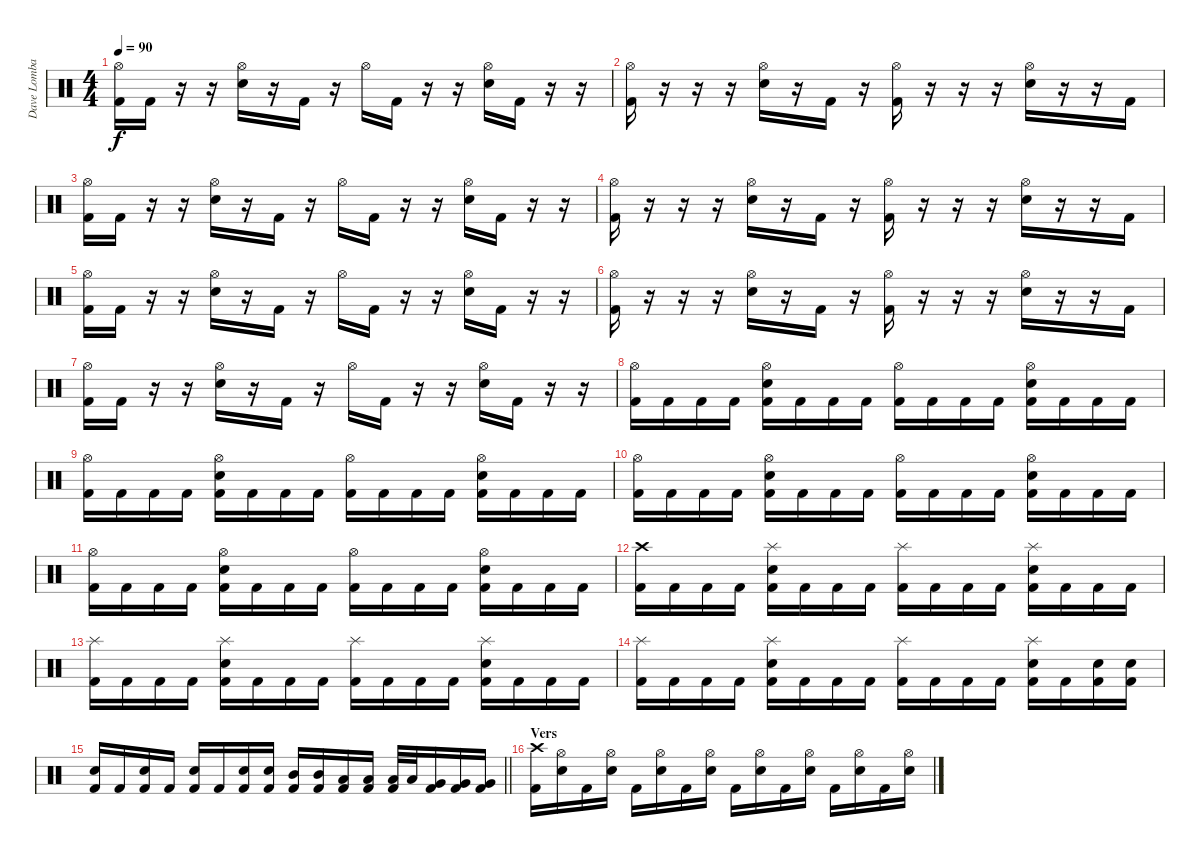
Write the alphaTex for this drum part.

\track ("Dave Lombardo" "Dave Lomba") {instrument percussion}
\staff {score}
\articulation defaults
\ts (4 4)
\tempo 90
\clef neutral
\ks c
("Hi-Hat (open)" "Kick (hit) 2").16{dy f} "Kick (hit) 2".16 r.16 r.16 ("Hi-Hat (open)" "Snare (hit) 2").16 r.16 "Kick (hit) 2".16 r.16 "Hi-Hat (open)".16 "Kick (hit) 2".16 r.16 r.16 ("Hi-Hat (open)" "Snare (hit) 2").16 "Kick (hit) 2".16 r.16 r.16 |
("Hi-Hat (open)" "Kick (hit) 2").16 r.16 r.16 r.16 ("Hi-Hat (open)" "Snare (hit) 2").16 r.16 "Kick (hit) 2".16 r.16 ("Hi-Hat (open)" "Kick (hit) 2").16 r.16 r.16 r.16 ("Hi-Hat (open)" "Snare (hit) 2").16 r.16 r.16 "Kick (hit) 2".16 |
("Hi-Hat (open)" "Kick (hit) 2").16 "Kick (hit) 2".16 r.16 r.16 ("Hi-Hat (open)" "Snare (hit) 2").16 r.16 "Kick (hit) 2".16 r.16 "Hi-Hat (open)".16 "Kick (hit) 2".16 r.16 r.16 ("Hi-Hat (open)" "Snare (hit) 2").16 "Kick (hit) 2".16 r.16 r.16 |
("Hi-Hat (open)" "Kick (hit) 2").16 r.16 r.16 r.16 ("Hi-Hat (open)" "Snare (hit) 2").16 r.16 "Kick (hit) 2".16 r.16 ("Hi-Hat (open)" "Kick (hit) 2").16 r.16 r.16 r.16 ("Hi-Hat (open)" "Snare (hit) 2").16 r.16 r.16 "Kick (hit) 2".16 |
("Hi-Hat (open)" "Kick (hit) 2").16 "Kick (hit) 2".16 r.16 r.16 ("Hi-Hat (open)" "Snare (hit) 2").16 r.16 "Kick (hit) 2".16 r.16 "Hi-Hat (open)".16 "Kick (hit) 2".16 r.16 r.16 ("Hi-Hat (open)" "Snare (hit) 2").16 "Kick (hit) 2".16 r.16 r.16 |
("Hi-Hat (open)" "Kick (hit) 2").16 r.16 r.16 r.16 ("Hi-Hat (open)" "Snare (hit) 2").16 r.16 "Kick (hit) 2".16 r.16 ("Hi-Hat (open)" "Kick (hit) 2").16 r.16 r.16 r.16 ("Hi-Hat (open)" "Snare (hit) 2").16 r.16 r.16 "Kick (hit) 2".16 |
("Hi-Hat (open)" "Kick (hit) 2").16 "Kick (hit) 2".16 r.16 r.16 ("Hi-Hat (open)" "Snare (hit) 2").16 r.16 "Kick (hit) 2".16 r.16 "Hi-Hat (open)".16 "Kick (hit) 2".16 r.16 r.16 ("Hi-Hat (open)" "Snare (hit) 2").16 "Kick (hit) 2".16 r.16 r.16 |
("Hi-Hat (open)" "Kick (hit) 2").16 "Kick (hit) 2".16 "Kick (hit) 2".16 "Kick (hit) 2".16 ("Hi-Hat (open)" "Snare (hit) 2" "Kick (hit) 2").16 "Kick (hit) 2".16 "Kick (hit) 2".16 "Kick (hit) 2".16 ("Hi-Hat (open)" "Kick (hit) 2").16 "Kick (hit) 2".16 "Kick (hit) 2".16 "Kick (hit) 2".16 ("Hi-Hat (open)" "Snare (hit) 2" "Kick (hit) 2").16 "Kick (hit) 2".16 "Kick (hit) 2".16 "Kick (hit) 2".16 |
("Hi-Hat (open)" "Kick (hit) 2").16 "Kick (hit) 2".16 "Kick (hit) 2".16 "Kick (hit) 2".16 ("Hi-Hat (open)" "Snare (hit) 2" "Kick (hit) 2").16 "Kick (hit) 2".16 "Kick (hit) 2".16 "Kick (hit) 2".16 ("Hi-Hat (open)" "Kick (hit) 2").16 "Kick (hit) 2".16 "Kick (hit) 2".16 "Kick (hit) 2".16 ("Hi-Hat (open)" "Snare (hit) 2" "Kick (hit) 2").16 "Kick (hit) 2".16 "Kick (hit) 2".16 "Kick (hit) 2".16 |
("Hi-Hat (open)" "Kick (hit) 2").16 "Kick (hit) 2".16 "Kick (hit) 2".16 "Kick (hit) 2".16 ("Hi-Hat (open)" "Snare (hit) 2" "Kick (hit) 2").16 "Kick (hit) 2".16 "Kick (hit) 2".16 "Kick (hit) 2".16 ("Hi-Hat (open)" "Kick (hit) 2").16 "Kick (hit) 2".16 "Kick (hit) 2".16 "Kick (hit) 2".16 ("Hi-Hat (open)" "Snare (hit) 2" "Kick (hit) 2").16 "Kick (hit) 2".16 "Kick (hit) 2".16 "Kick (hit) 2".16 |
("Hi-Hat (open)" "Kick (hit) 2").16 "Kick (hit) 2".16 "Kick (hit) 2".16 "Kick (hit) 2".16 ("Hi-Hat (open)" "Snare (hit) 2" "Kick (hit) 2").16 "Kick (hit) 2".16 "Kick (hit) 2".16 "Kick (hit) 2".16 ("Hi-Hat (open)" "Kick (hit) 2").16 "Kick (hit) 2".16 "Kick (hit) 2".16 "Kick (hit) 2".16 ("Hi-Hat (open)" "Snare (hit) 2" "Kick (hit) 2").16 "Kick (hit) 2".16 "Kick (hit) 2".16 "Kick (hit) 2".16 |
("Crash high (hit)" "Kick (hit) 2").16 "Kick (hit) 2".16 "Kick (hit) 2".16 "Kick (hit) 2".16 ("Splash (hit)" "Snare (hit) 2" "Kick (hit) 2").16 "Kick (hit) 2".16 "Kick (hit) 2".16 "Kick (hit) 2".16 ("Splash (hit)" "Kick (hit) 2").16 "Kick (hit) 2".16 "Kick (hit) 2".16 "Kick (hit) 2".16 ("Splash (hit)" "Snare (hit) 2" "Kick (hit) 2").16 "Kick (hit) 2".16 "Kick (hit) 2".16 "Kick (hit) 2".16 |
("Splash (hit)" "Kick (hit) 2").16 "Kick (hit) 2".16 "Kick (hit) 2".16 "Kick (hit) 2".16 ("Splash (hit)" "Snare (hit) 2" "Kick (hit) 2").16 "Kick (hit) 2".16 "Kick (hit) 2".16 "Kick (hit) 2".16 ("Splash (hit)" "Kick (hit) 2").16 "Kick (hit) 2".16 "Kick (hit) 2".16 "Kick (hit) 2".16 ("Splash (hit)" "Snare (hit) 2" "Kick (hit) 2").16 "Kick (hit) 2".16 "Kick (hit) 2".16 "Kick (hit) 2".16 |
("Splash (hit)" "Kick (hit) 2").16 "Kick (hit) 2".16 "Kick (hit) 2".16 "Kick (hit) 2".16 ("Splash (hit)" "Snare (hit) 2" "Kick (hit) 2").16 "Kick (hit) 2".16 "Kick (hit) 2".16 "Kick (hit) 2".16 ("Splash (hit)" "Kick (hit) 2").16 "Kick (hit) 2".16 "Kick (hit) 2".16 "Kick (hit) 2".16 ("Splash (hit)" "Snare (hit) 2" "Kick (hit) 2").16 "Kick (hit) 2".16 ("Snare (hit) 2" "Kick (hit) 2").16 ("Snare (hit) 2" "Kick (hit) 2").16 |
\barLineRight lightlight
("Snare (hit) 2" "Kick (hit) 2").16 "Kick (hit) 2".16 ("Snare (hit) 2" "Kick (hit) 2").16 "Kick (hit) 2".16 ("Snare (hit) 2" "Kick (hit) 2").16 "Kick (hit) 2".16 ("Snare (hit) 2" "Kick (hit) 2").16 ("Snare (hit) 2" "Kick (hit) 2").16 ("Mid Tom (hit)" "Kick (hit) 2").16 ("Mid Tom (hit)" "Kick (hit) 2").16 ("Low Tom (hit)" "Kick (hit) 2").16 ("Low Tom (hit)" "Kick (hit) 2").16 ("Low Tom (hit)" "Kick (hit) 2").32 "Low Tom (hit)".32 ("Very Low Tom (hit)" "Kick (hit) 2").16 ("Very Low Tom (hit)" "Kick (hit) 2").16 ("Very Low Tom (hit)" "Kick (hit) 2").16 |
\section ("" "Vers")
("Crash high (hit)" "Kick (hit) 2").16 ("Hi-Hat (open)" "Snare (hit) 2").16 "Kick (hit) 2".16 ("Hi-Hat (open)" "Snare (hit) 2").16 "Kick (hit) 2".16 ("Hi-Hat (open)" "Snare (hit) 2").16 "Kick (hit) 2".16 ("Hi-Hat (open)" "Snare (hit) 2").16 "Kick (hit) 2".16 ("Hi-Hat (open)" "Snare (hit) 2").16 "Kick (hit) 2".16 ("Hi-Hat (open)" "Snare (hit) 2").16 "Kick (hit) 2".16 ("Hi-Hat (open)" "Snare (hit) 2").16 "Kick (hit) 2".16 ("Hi-Hat (open)" "Snare (hit) 2").16
